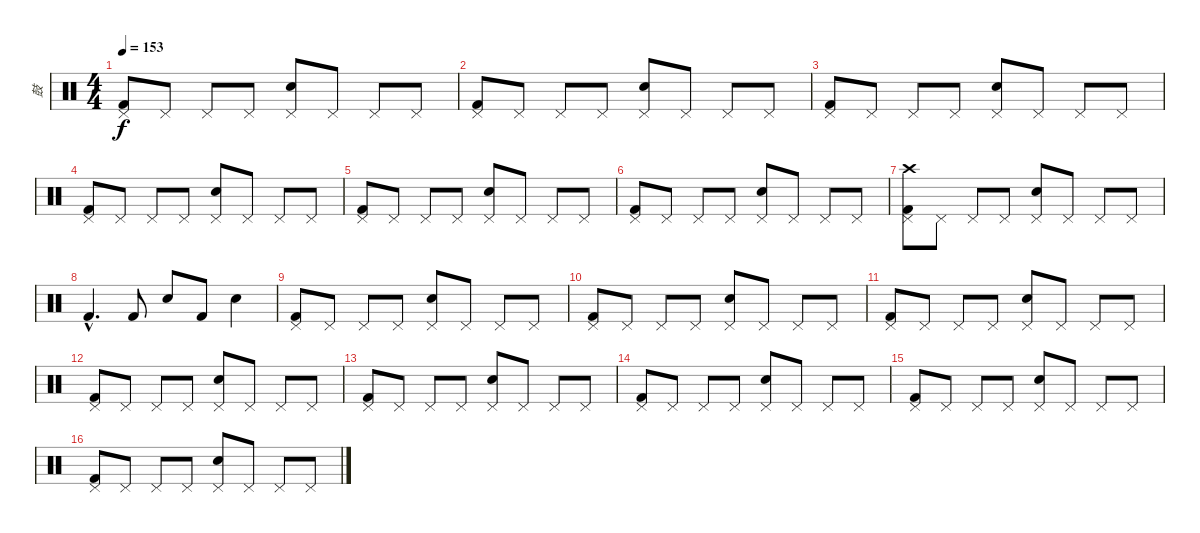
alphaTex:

\track ("鼓" "鼓") {instrument percussion}
\staff {score}
\articulation defaults
\ts (4 4)
\tempo 153
\clef neutral
\ks c
("Pedal Hi-Hat (hit)" "Kick (hit) 2").8{dy f} "Pedal Hi-Hat (hit)".8 "Pedal Hi-Hat (hit)".8 "Pedal Hi-Hat (hit)".8 ("Pedal Hi-Hat (hit)" "Electric Snare (hit)").8 "Pedal Hi-Hat (hit)".8 "Pedal Hi-Hat (hit)".8 "Pedal Hi-Hat (hit)".8 |
("Pedal Hi-Hat (hit)" "Kick (hit) 2").8 "Pedal Hi-Hat (hit)".8 "Pedal Hi-Hat (hit)".8 "Pedal Hi-Hat (hit)".8 ("Pedal Hi-Hat (hit)" "Electric Snare (hit)").8 "Pedal Hi-Hat (hit)".8 "Pedal Hi-Hat (hit)".8 "Pedal Hi-Hat (hit)".8 |
("Pedal Hi-Hat (hit)" "Kick (hit) 2").8 "Pedal Hi-Hat (hit)".8 "Pedal Hi-Hat (hit)".8 "Pedal Hi-Hat (hit)".8 ("Pedal Hi-Hat (hit)" "Electric Snare (hit)").8 "Pedal Hi-Hat (hit)".8 "Pedal Hi-Hat (hit)".8 "Pedal Hi-Hat (hit)".8 |
("Pedal Hi-Hat (hit)" "Kick (hit) 2").8 "Pedal Hi-Hat (hit)".8 "Pedal Hi-Hat (hit)".8 "Pedal Hi-Hat (hit)".8 ("Pedal Hi-Hat (hit)" "Electric Snare (hit)").8 "Pedal Hi-Hat (hit)".8 "Pedal Hi-Hat (hit)".8 "Pedal Hi-Hat (hit)".8 |
("Pedal Hi-Hat (hit)" "Kick (hit) 2").8 "Pedal Hi-Hat (hit)".8 "Pedal Hi-Hat (hit)".8 "Pedal Hi-Hat (hit)".8 ("Pedal Hi-Hat (hit)" "Electric Snare (hit)").8 "Pedal Hi-Hat (hit)".8 "Pedal Hi-Hat (hit)".8 "Pedal Hi-Hat (hit)".8 |
("Pedal Hi-Hat (hit)" "Kick (hit) 2").8 "Pedal Hi-Hat (hit)".8 "Pedal Hi-Hat (hit)".8 "Pedal Hi-Hat (hit)".8 ("Pedal Hi-Hat (hit)" "Electric Snare (hit)").8 "Pedal Hi-Hat (hit)".8 "Pedal Hi-Hat (hit)".8 "Pedal Hi-Hat (hit)".8 |
("Pedal Hi-Hat (hit)" "Crash high (hit)" "Kick (hit) 2").8 "Pedal Hi-Hat (hit)".8 "Pedal Hi-Hat (hit)".8 "Pedal Hi-Hat (hit)".8 ("Pedal Hi-Hat (hit)" "Electric Snare (hit)").8 "Pedal Hi-Hat (hit)".8 "Pedal Hi-Hat (hit)".8 "Pedal Hi-Hat (hit)".8 |
"Kick (hit) 2"{hac}.4{d} "Kick (hit) 2".8 "Electric Snare (hit)".8 "Kick (hit) 2".8 "Electric Snare (hit)".4 |
("Pedal Hi-Hat (hit)" "Kick (hit) 2").8 "Pedal Hi-Hat (hit)".8 "Pedal Hi-Hat (hit)".8 "Pedal Hi-Hat (hit)".8 ("Pedal Hi-Hat (hit)" "Electric Snare (hit)").8 "Pedal Hi-Hat (hit)".8 "Pedal Hi-Hat (hit)".8 "Pedal Hi-Hat (hit)".8 |
("Pedal Hi-Hat (hit)" "Kick (hit) 2").8 "Pedal Hi-Hat (hit)".8 "Pedal Hi-Hat (hit)".8 "Pedal Hi-Hat (hit)".8 ("Pedal Hi-Hat (hit)" "Electric Snare (hit)").8 "Pedal Hi-Hat (hit)".8 "Pedal Hi-Hat (hit)".8 "Pedal Hi-Hat (hit)".8 |
("Pedal Hi-Hat (hit)" "Kick (hit) 2").8 "Pedal Hi-Hat (hit)".8 "Pedal Hi-Hat (hit)".8 "Pedal Hi-Hat (hit)".8 ("Pedal Hi-Hat (hit)" "Electric Snare (hit)").8 "Pedal Hi-Hat (hit)".8 "Pedal Hi-Hat (hit)".8 "Pedal Hi-Hat (hit)".8 |
("Pedal Hi-Hat (hit)" "Kick (hit) 2").8 "Pedal Hi-Hat (hit)".8 "Pedal Hi-Hat (hit)".8 "Pedal Hi-Hat (hit)".8 ("Pedal Hi-Hat (hit)" "Electric Snare (hit)").8 "Pedal Hi-Hat (hit)".8 "Pedal Hi-Hat (hit)".8 "Pedal Hi-Hat (hit)".8 |
("Pedal Hi-Hat (hit)" "Kick (hit) 2").8 "Pedal Hi-Hat (hit)".8 "Pedal Hi-Hat (hit)".8 "Pedal Hi-Hat (hit)".8 ("Pedal Hi-Hat (hit)" "Electric Snare (hit)").8 "Pedal Hi-Hat (hit)".8 "Pedal Hi-Hat (hit)".8 "Pedal Hi-Hat (hit)".8 |
("Pedal Hi-Hat (hit)" "Kick (hit) 2").8 "Pedal Hi-Hat (hit)".8 "Pedal Hi-Hat (hit)".8 "Pedal Hi-Hat (hit)".8 ("Pedal Hi-Hat (hit)" "Electric Snare (hit)").8 "Pedal Hi-Hat (hit)".8 "Pedal Hi-Hat (hit)".8 "Pedal Hi-Hat (hit)".8 |
("Pedal Hi-Hat (hit)" "Kick (hit) 2").8 "Pedal Hi-Hat (hit)".8 "Pedal Hi-Hat (hit)".8 "Pedal Hi-Hat (hit)".8 ("Pedal Hi-Hat (hit)" "Electric Snare (hit)").8 "Pedal Hi-Hat (hit)".8 "Pedal Hi-Hat (hit)".8 "Pedal Hi-Hat (hit)".8 |
("Pedal Hi-Hat (hit)" "Kick (hit) 2").8 "Pedal Hi-Hat (hit)".8 "Pedal Hi-Hat (hit)".8 "Pedal Hi-Hat (hit)".8 ("Pedal Hi-Hat (hit)" "Electric Snare (hit)").8 "Pedal Hi-Hat (hit)".8 "Pedal Hi-Hat (hit)".8 "Pedal Hi-Hat (hit)".8
